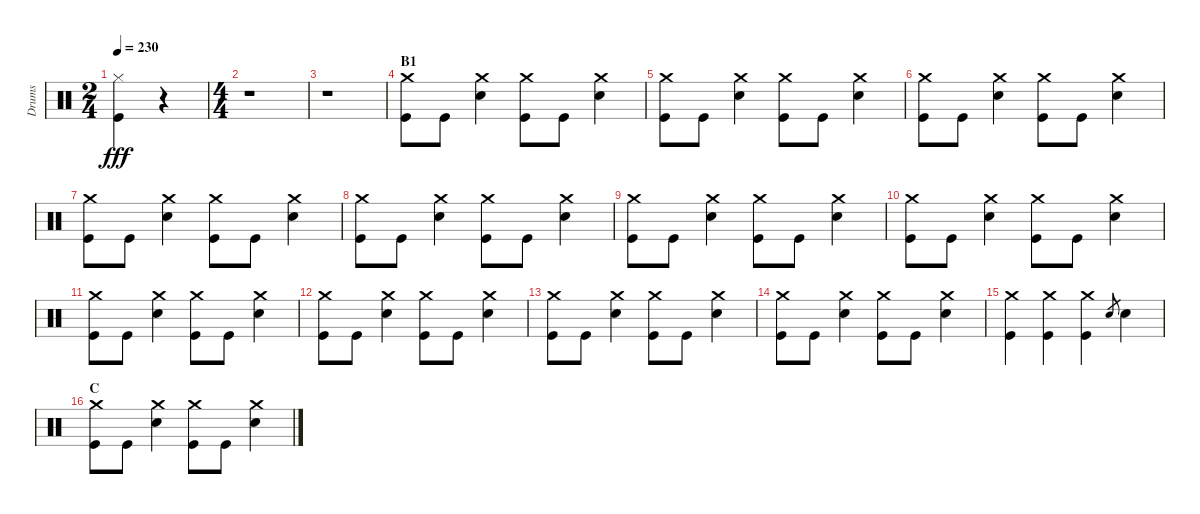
\track ("Drums" "Drums") {instrument percussion}
\staff {score}
\articulation defaults
\ts (2 4)
\tempo 230
\clef neutral
\ks c
("Hi-Hat (closed)" "Kick (hit)").4{dy fff} r.4 |
\ts (4 4)
r.1 |
r.1 |
\section ("" "B1")
("Crash medium (hit)" "Kick (hit)").8 "Kick (hit)".8 ("Crash medium (hit)" "Snare (hit) 2").4 ("Crash medium (hit)" "Kick (hit)").8 "Kick (hit)".8 ("Crash medium (hit)" "Snare (hit) 2").4 |
("Crash medium (hit)" "Kick (hit)").8 "Kick (hit)".8 ("Crash medium (hit)" "Snare (hit) 2").4 ("Crash medium (hit)" "Kick (hit)").8 "Kick (hit)".8 ("Crash medium (hit)" "Snare (hit) 2").4 |
("Crash medium (hit)" "Kick (hit)").8 "Kick (hit)".8 ("Crash medium (hit)" "Snare (hit) 2").4 ("Crash medium (hit)" "Kick (hit)").8 "Kick (hit)".8 ("Crash medium (hit)" "Snare (hit) 2").4 |
("Crash medium (hit)" "Kick (hit)").8 "Kick (hit)".8 ("Crash medium (hit)" "Snare (hit) 2").4 ("Crash medium (hit)" "Kick (hit)").8 "Kick (hit)".8 ("Crash medium (hit)" "Snare (hit) 2").4 |
("Crash medium (hit)" "Kick (hit)").8 "Kick (hit)".8 ("Crash medium (hit)" "Snare (hit) 2").4 ("Crash medium (hit)" "Kick (hit)").8 "Kick (hit)".8 ("Crash medium (hit)" "Snare (hit) 2").4 |
("Crash medium (hit)" "Kick (hit)").8 "Kick (hit)".8 ("Crash medium (hit)" "Snare (hit) 2").4 ("Crash medium (hit)" "Kick (hit)").8 "Kick (hit)".8 ("Crash medium (hit)" "Snare (hit) 2").4 |
("Crash medium (hit)" "Kick (hit)").8 "Kick (hit)".8 ("Crash medium (hit)" "Snare (hit) 2").4 ("Crash medium (hit)" "Kick (hit)").8 "Kick (hit)".8 ("Crash medium (hit)" "Snare (hit) 2").4 |
("Crash medium (hit)" "Kick (hit)").8 "Kick (hit)".8 ("Crash medium (hit)" "Snare (hit) 2").4 ("Crash medium (hit)" "Kick (hit)").8 "Kick (hit)".8 ("Crash medium (hit)" "Snare (hit) 2").4 |
("Crash medium (hit)" "Kick (hit)").8 "Kick (hit)".8 ("Crash medium (hit)" "Snare (hit) 2").4 ("Crash medium (hit)" "Kick (hit)").8 "Kick (hit)".8 ("Crash medium (hit)" "Snare (hit) 2").4 |
("Crash medium (hit)" "Kick (hit)").8 "Kick (hit)".8 ("Crash medium (hit)" "Snare (hit) 2").4 ("Crash medium (hit)" "Kick (hit)").8 "Kick (hit)".8 ("Crash medium (hit)" "Snare (hit) 2").4 |
("Crash medium (hit)" "Kick (hit)").8 "Kick (hit)".8 ("Crash medium (hit)" "Snare (hit) 2").4 ("Crash medium (hit)" "Kick (hit)").8 "Kick (hit)".8 ("Crash medium (hit)" "Snare (hit) 2").4 |
("Crash medium (hit)" "Kick (hit)").4 ("Crash medium (hit)" "Kick (hit)").4 ("Crash medium (hit)" "Kick (hit)").4 "Snare (hit) 2".8{gr} "Snare (hit) 2".4 |
\section ("" "C")
("Crash medium (hit)" "Kick (hit)").8 "Kick (hit)".8 ("Crash medium (hit)" "Snare (hit) 2").4 ("Crash medium (hit)" "Kick (hit)").8 "Kick (hit)".8 ("Crash medium (hit)" "Snare (hit) 2").4
